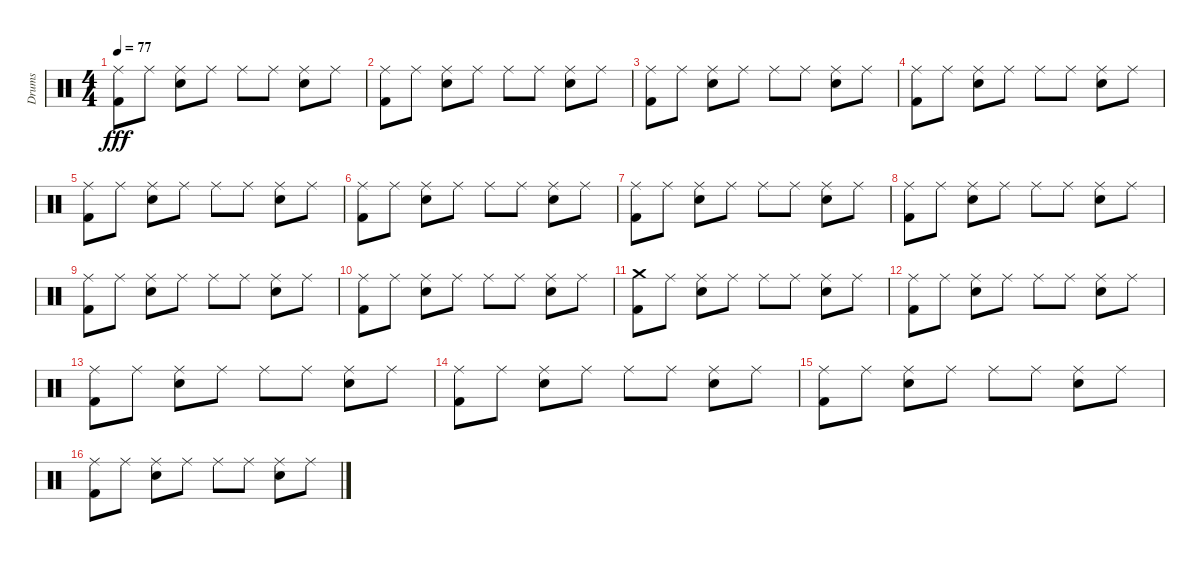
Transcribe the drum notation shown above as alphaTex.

\track ("Drums" "Drums") {instrument percussion}
\staff {score}
\articulation defaults
\ts (4 4)
\tempo 77
\clef neutral
\ks c
("Ride (middle)" "Kick (hit) 2").8{dy fff} "Ride (middle)".8 ("Ride (middle)" "Snare (hit) 2").8 "Ride (middle)".8 "Ride (middle)".8 "Ride (middle)".8 ("Ride (middle)" "Snare (hit) 2").8 "Ride (middle)".8 |
("Ride (middle)" "Kick (hit) 2").8 "Ride (middle)".8 ("Ride (middle)" "Snare (hit) 2").8 "Ride (middle)".8 "Ride (middle)".8 "Ride (middle)".8 ("Ride (middle)" "Snare (hit) 2").8 "Ride (middle)".8 |
("Ride (middle)" "Kick (hit) 2").8 "Ride (middle)".8 ("Ride (middle)" "Snare (hit) 2").8 "Ride (middle)".8 "Ride (middle)".8 "Ride (middle)".8 ("Ride (middle)" "Snare (hit) 2").8 "Ride (middle)".8 |
("Ride (middle)" "Kick (hit) 2").8 "Ride (middle)".8 ("Ride (middle)" "Snare (hit) 2").8 "Ride (middle)".8 "Ride (middle)".8 "Ride (middle)".8 ("Ride (middle)" "Snare (hit) 2").8 "Ride (middle)".8 |
("Ride (middle)" "Kick (hit) 2").8 "Ride (middle)".8 ("Ride (middle)" "Snare (hit) 2").8 "Ride (middle)".8 "Ride (middle)".8 "Ride (middle)".8 ("Ride (middle)" "Snare (hit) 2").8 "Ride (middle)".8 |
("Ride (middle)" "Kick (hit) 2").8 "Ride (middle)".8 ("Ride (middle)" "Snare (hit) 2").8 "Ride (middle)".8 "Ride (middle)".8 "Ride (middle)".8 ("Ride (middle)" "Snare (hit) 2").8 "Ride (middle)".8 |
("Ride (middle)" "Kick (hit) 2").8 "Ride (middle)".8 ("Ride (middle)" "Snare (hit) 2").8 "Ride (middle)".8 "Ride (middle)".8 "Ride (middle)".8 ("Ride (middle)" "Snare (hit) 2").8 "Ride (middle)".8 |
("Ride (middle)" "Kick (hit) 2").8 "Ride (middle)".8 ("Ride (middle)" "Snare (hit) 2").8 "Ride (middle)".8 "Ride (middle)".8 "Ride (middle)".8 ("Ride (middle)" "Snare (hit) 2").8 "Ride (middle)".8 |
("Ride (middle)" "Kick (hit) 2").8 "Ride (middle)".8 ("Ride (middle)" "Snare (hit) 2").8 "Ride (middle)".8 "Ride (middle)".8 "Ride (middle)".8 ("Ride (middle)" "Snare (hit) 2").8 "Ride (middle)".8 |
("Ride (middle)" "Kick (hit) 2").8 "Ride (middle)".8 ("Ride (middle)" "Snare (hit) 2").8 "Ride (middle)".8 "Ride (middle)".8 "Ride (middle)".8 ("Ride (middle)" "Snare (hit) 2").8 "Ride (middle)".8 |
("Crash medium (hit)" "Kick (hit) 2").8 "Ride (middle)".8 ("Ride (middle)" "Snare (hit) 2").8 "Ride (middle)".8 "Ride (middle)".8 "Ride (middle)".8 ("Ride (middle)" "Snare (hit) 2").8 "Ride (middle)".8 |
("Ride (middle)" "Kick (hit) 2").8 "Ride (middle)".8 ("Ride (middle)" "Snare (hit) 2").8 "Ride (middle)".8 "Ride (middle)".8 "Ride (middle)".8 ("Ride (middle)" "Snare (hit) 2").8 "Ride (middle)".8 |
("Ride (middle)" "Kick (hit) 2").8 "Ride (middle)".8 ("Ride (middle)" "Snare (hit) 2").8 "Ride (middle)".8 "Ride (middle)".8 "Ride (middle)".8 ("Ride (middle)" "Snare (hit) 2").8 "Ride (middle)".8 |
("Ride (middle)" "Kick (hit) 2").8 "Ride (middle)".8 ("Ride (middle)" "Snare (hit) 2").8 "Ride (middle)".8 "Ride (middle)".8 "Ride (middle)".8 ("Ride (middle)" "Snare (hit) 2").8 "Ride (middle)".8 |
("Ride (middle)" "Kick (hit) 2").8 "Ride (middle)".8 ("Ride (middle)" "Snare (hit) 2").8 "Ride (middle)".8 "Ride (middle)".8 "Ride (middle)".8 ("Ride (middle)" "Snare (hit) 2").8 "Ride (middle)".8 |
("Ride (middle)" "Kick (hit) 2").8 "Ride (middle)".8 ("Ride (middle)" "Snare (hit) 2").8 "Ride (middle)".8 "Ride (middle)".8 "Ride (middle)".8 ("Ride (middle)" "Snare (hit) 2").8 "Ride (middle)".8
